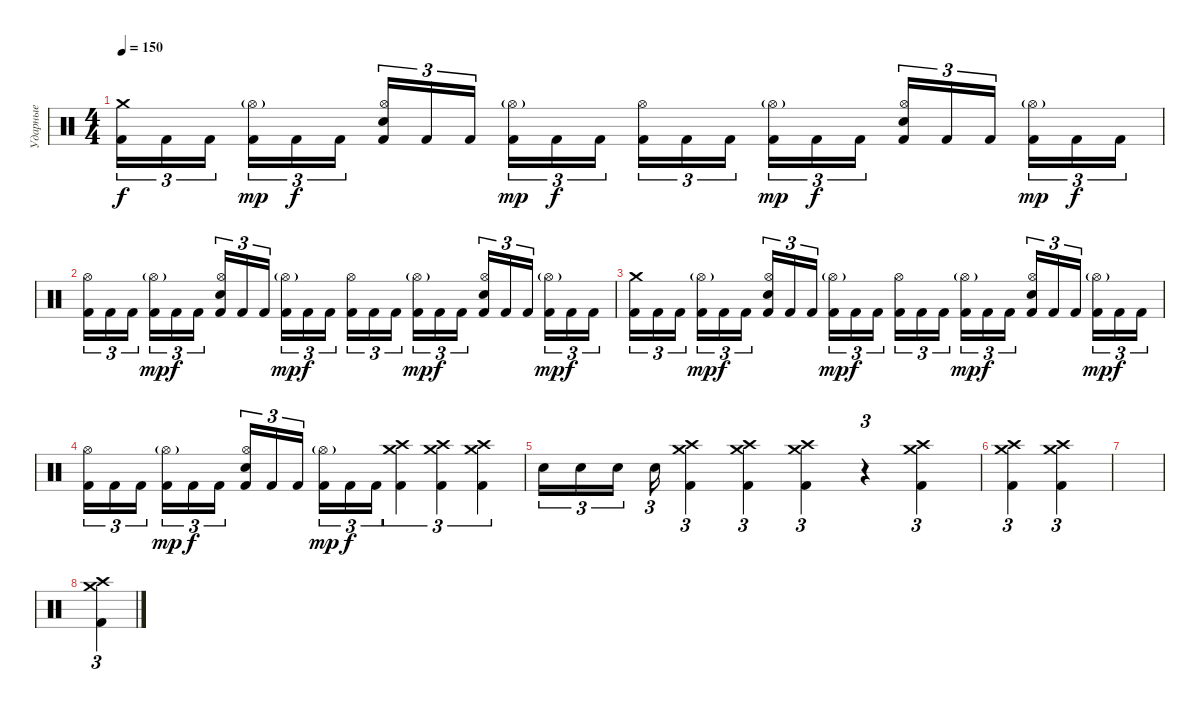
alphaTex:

\track ("Ударные" "Ударные") {instrument percussion}
\staff
\articulation defaults
\ts (4 4)
\tempo 150
\clef neutral
\ks c
("Crash medium (hit)" "Kick (hit) 2").16{tu (3 2) dy f} "Kick (hit) 2".16{tu (3 2)} "Kick (hit) 2".16{tu (3 2) beam splitsecondary} ("Hi-Hat (open)"{g} "Kick (hit) 2").16{tu (3 2) dy mp} "Kick (hit) 2".16{tu (3 2) dy f} "Kick (hit) 2".16{tu (3 2)} ("Hi-Hat (open)" "Snare (hit) 2" "Kick (hit) 2").16{tu (3 2)} "Kick (hit) 2".16{tu (3 2)} "Kick (hit) 2".16{tu (3 2) beam splitsecondary} ("Hi-Hat (open)"{g} "Kick (hit) 2").16{tu (3 2) dy mp} "Kick (hit) 2".16{tu (3 2) dy f} "Kick (hit) 2".16{tu (3 2)} ("Hi-Hat (open)" "Kick (hit) 2").16{tu (3 2)} "Kick (hit) 2".16{tu (3 2)} "Kick (hit) 2".16{tu (3 2) beam splitsecondary} ("Hi-Hat (open)"{g} "Kick (hit) 2").16{tu (3 2) dy mp} "Kick (hit) 2".16{tu (3 2) dy f} "Kick (hit) 2".16{tu (3 2)} ("Hi-Hat (open)" "Snare (hit) 2" "Kick (hit) 2").16{tu (3 2)} "Kick (hit) 2".16{tu (3 2)} "Kick (hit) 2".16{tu (3 2) beam splitsecondary} ("Hi-Hat (open)"{g} "Kick (hit) 2").16{tu (3 2) dy mp} "Kick (hit) 2".16{tu (3 2) dy f} "Kick (hit) 2".16{tu (3 2)} |
("Hi-Hat (open)" "Kick (hit) 2").16{tu (3 2)} "Kick (hit) 2".16{tu (3 2)} "Kick (hit) 2".16{tu (3 2) beam splitsecondary} ("Hi-Hat (open)"{g} "Kick (hit) 2").16{tu (3 2) dy mp} "Kick (hit) 2".16{tu (3 2) dy f} "Kick (hit) 2".16{tu (3 2)} ("Hi-Hat (open)" "Snare (hit) 2" "Kick (hit) 2").16{tu (3 2)} "Kick (hit) 2".16{tu (3 2)} "Kick (hit) 2".16{tu (3 2) beam splitsecondary} ("Hi-Hat (open)"{g} "Kick (hit) 2").16{tu (3 2) dy mp} "Kick (hit) 2".16{tu (3 2) dy f} "Kick (hit) 2".16{tu (3 2)} ("Hi-Hat (open)" "Kick (hit) 2").16{tu (3 2)} "Kick (hit) 2".16{tu (3 2)} "Kick (hit) 2".16{tu (3 2) beam splitsecondary} ("Hi-Hat (open)"{g} "Kick (hit) 2").16{tu (3 2) dy mp} "Kick (hit) 2".16{tu (3 2) dy f} "Kick (hit) 2".16{tu (3 2)} ("Hi-Hat (open)" "Snare (hit) 2" "Kick (hit) 2").16{tu (3 2)} "Kick (hit) 2".16{tu (3 2)} "Kick (hit) 2".16{tu (3 2) beam splitsecondary} ("Hi-Hat (open)"{g} "Kick (hit) 2").16{tu (3 2) dy mp} "Kick (hit) 2".16{tu (3 2) dy f} "Kick (hit) 2".16{tu (3 2)} |
("Crash medium (hit)" "Kick (hit) 2").16{tu (3 2)} "Kick (hit) 2".16{tu (3 2)} "Kick (hit) 2".16{tu (3 2) beam splitsecondary} ("Hi-Hat (open)"{g} "Kick (hit) 2").16{tu (3 2) dy mp} "Kick (hit) 2".16{tu (3 2) dy f} "Kick (hit) 2".16{tu (3 2)} ("Hi-Hat (open)" "Snare (hit) 2" "Kick (hit) 2").16{tu (3 2)} "Kick (hit) 2".16{tu (3 2)} "Kick (hit) 2".16{tu (3 2) beam splitsecondary} ("Hi-Hat (open)"{g} "Kick (hit) 2").16{tu (3 2) dy mp} "Kick (hit) 2".16{tu (3 2) dy f} "Kick (hit) 2".16{tu (3 2)} ("Hi-Hat (open)" "Kick (hit) 2").16{tu (3 2)} "Kick (hit) 2".16{tu (3 2)} "Kick (hit) 2".16{tu (3 2) beam splitsecondary} ("Hi-Hat (open)"{g} "Kick (hit) 2").16{tu (3 2) dy mp} "Kick (hit) 2".16{tu (3 2) dy f} "Kick (hit) 2".16{tu (3 2)} ("Hi-Hat (open)" "Snare (hit) 2" "Kick (hit) 2").16{tu (3 2)} "Kick (hit) 2".16{tu (3 2)} "Kick (hit) 2".16{tu (3 2) beam splitsecondary} ("Hi-Hat (open)"{g} "Kick (hit) 2").16{tu (3 2) dy mp} "Kick (hit) 2".16{tu (3 2) dy f} "Kick (hit) 2".16{tu (3 2)} |
("Hi-Hat (open)" "Kick (hit) 2").16{tu (3 2)} "Kick (hit) 2".16{tu (3 2)} "Kick (hit) 2".16{tu (3 2) beam splitsecondary} ("Hi-Hat (open)"{g} "Kick (hit) 2").16{tu (3 2) dy mp} "Kick (hit) 2".16{tu (3 2) dy f} "Kick (hit) 2".16{tu (3 2)} ("Hi-Hat (open)" "Snare (hit) 2" "Kick (hit) 2").16{tu (3 2)} "Kick (hit) 2".16{tu (3 2)} "Kick (hit) 2".16{tu (3 2) beam splitsecondary} ("Hi-Hat (open)"{g} "Kick (hit) 2").16{tu (3 2) dy mp} "Kick (hit) 2".16{tu (3 2) dy f} "Kick (hit) 2".16{tu (3 2)} ("Crash medium (hit)" "Crash high (hit)" "Kick (hit) 2").4{tu (3 2)} ("Crash medium (hit)" "Crash high (hit)" "Kick (hit) 2").4{tu (3 2)} ("Crash medium (hit)" "Crash high (hit)" "Kick (hit) 2").4{tu (3 2)} |
"Snare (hit) 2".16{tu (3 2)} "Snare (hit) 2".16{tu (3 2)} "Snare (hit) 2".16{tu (3 2) beam splitsecondary} "Snare (hit) 2".16{tu (3 2)} ("Crash medium (hit)" "Crash high (hit)" "Kick (hit) 2").4{tu (3 2)} ("Crash medium (hit)" "Crash high (hit)" "Kick (hit) 2").4{tu (3 2)} ("Crash medium (hit)" "Crash high (hit)" "Kick (hit) 2").4{tu (3 2)} r.4{tu (3 2)} ("Crash medium (hit)" "Crash high (hit)" "Kick (hit) 2").4{tu (3 2)} |
("Crash medium (hit)" "Crash high (hit)" "Kick (hit) 2").4{tu (3 2)} ("Crash medium (hit)" "Crash high (hit)" "Kick (hit) 2").4{tu (3 2)} |
|
("Crash medium (hit)" "Crash high (hit)" "Kick (hit) 2").4{tu (3 2)}
